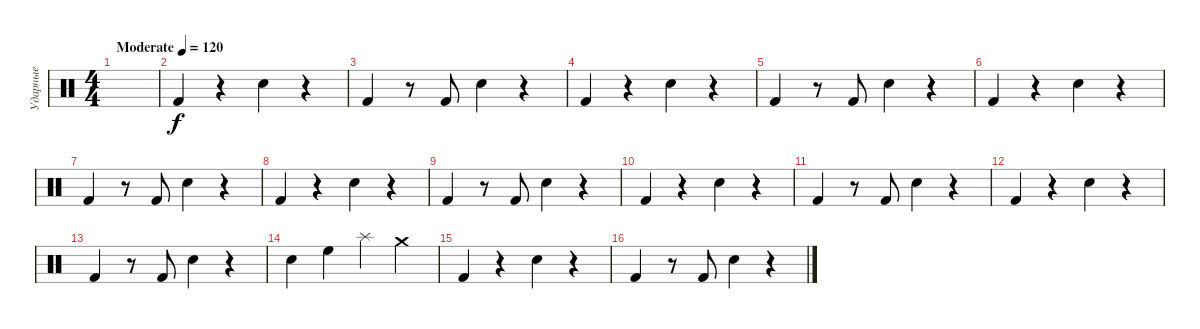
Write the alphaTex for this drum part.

\track ("Ударные" "Ударные") {instrument percussion}
\staff {score}
\articulation defaults
\ts (4 4)
\tempo (120 "Moderate")
\clef neutral
\ks c
|
"Kick (hit) 2".4 r.4 "Electric Snare (hit)".4 r.4 |
"Kick (hit) 2".4 r.8 "Kick (hit) 2".8 "Electric Snare (hit)".4 r.4 |
"Kick (hit) 2".4 r.4 "Electric Snare (hit)".4 r.4 |
"Kick (hit) 2".4 r.8 "Kick (hit) 2".8 "Electric Snare (hit)".4 r.4 |
"Kick (hit) 2".4 r.4 "Electric Snare (hit)".4 r.4 |
"Kick (hit) 2".4 r.8 "Kick (hit) 2".8 "Electric Snare (hit)".4 r.4 |
"Kick (hit) 2".4 r.4 "Electric Snare (hit)".4 r.4 |
"Kick (hit) 2".4 r.8 "Kick (hit) 2".8 "Electric Snare (hit)".4 r.4 |
"Kick (hit) 2".4 r.4 "Electric Snare (hit)".4 r.4 |
"Kick (hit) 2".4 r.8 "Kick (hit) 2".8 "Electric Snare (hit)".4 r.4 |
"Kick (hit) 2".4 r.4 "Electric Snare (hit)".4 r.4 |
"Kick (hit) 2".4 r.8 "Kick (hit) 2".8 "Electric Snare (hit)".4 r.4 |
"Snare (hit) 2".4 "High Floor Tom (hit)".4 "Splash (hit)".4 "Crash medium (hit)".4 |
"Kick (hit) 2".4 r.4 "Electric Snare (hit)".4 r.4 |
"Kick (hit) 2".4 r.8 "Kick (hit) 2".8 "Electric Snare (hit)".4 r.4
